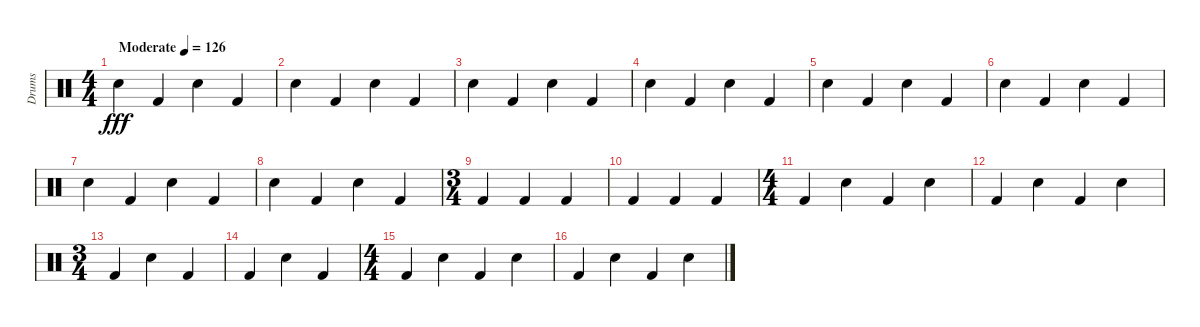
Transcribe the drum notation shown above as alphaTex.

\track ("Drums" "Drums") {instrument percussion}
\staff {score}
\articulation defaults
\ts (4 4)
\tempo (126 "Moderate")
\clef neutral
\ks c "Snare (hit) 2".4{dy fff} "Kick (hit) 2".4 "Snare (hit) 2".4 "Kick (hit) 2".4
|
"Snare (hit) 2".4 "Kick (hit) 2".4 "Snare (hit) 2".4 "Kick (hit) 2".4 |
"Snare (hit) 2".4 "Kick (hit) 2".4 "Snare (hit) 2".4 "Kick (hit) 2".4 |
"Snare (hit) 2".4 "Kick (hit) 2".4 "Snare (hit) 2".4 "Kick (hit) 2".4 |
"Snare (hit) 2".4 "Kick (hit) 2".4 "Snare (hit) 2".4 "Kick (hit) 2".4 |
"Snare (hit) 2".4 "Kick (hit) 2".4 "Snare (hit) 2".4 "Kick (hit) 2".4 |
"Snare (hit) 2".4 "Kick (hit) 2".4 "Snare (hit) 2".4 "Kick (hit) 2".4 |
"Snare (hit) 2".4 "Kick (hit) 2".4 "Snare (hit) 2".4 "Kick (hit) 2".4 |
\ts (3 4)
"Kick (hit) 2".4 "Kick (hit) 2".4 "Kick (hit) 2".4 |
"Kick (hit) 2".4 "Kick (hit) 2".4 "Kick (hit) 2".4 |
\ts (4 4)
"Kick (hit) 2".4 "Snare (hit) 2".4 "Kick (hit) 2".4 "Snare (hit) 2".4 |
"Kick (hit) 2".4 "Snare (hit) 2".4 "Kick (hit) 2".4 "Snare (hit) 2".4 |
\ts (3 4)
"Kick (hit) 2".4 "Snare (hit) 2".4 "Kick (hit) 2".4 |
"Kick (hit) 2".4 "Snare (hit) 2".4 "Kick (hit) 2".4 |
\ts (4 4)
"Kick (hit) 2".4 "Snare (hit) 2".4 "Kick (hit) 2".4 "Snare (hit) 2".4 |
"Kick (hit) 2".4 "Snare (hit) 2".4 "Kick (hit) 2".4 "Snare (hit) 2".4
